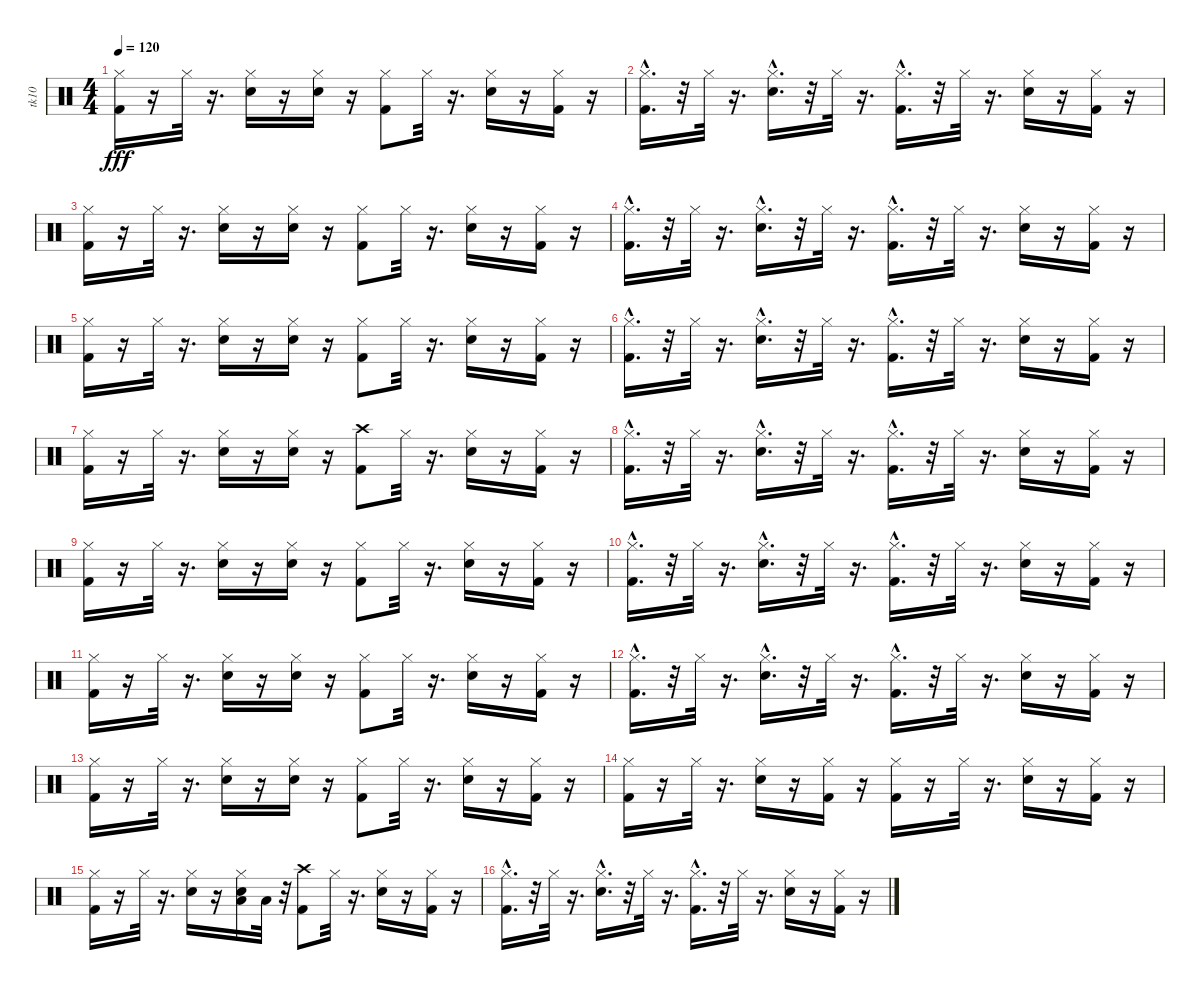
\track ("tk10" "tk10") {instrument percussion}
\staff {score}
\articulation defaults
\ts (4 4)
\tempo 120
\clef neutral
\ks c
("Hi-Hat (closed)" "Kick (hit) 2").16{dy fff} r.16 "Hi-Hat (closed)".32 r.16{d} ("Snare (hit) 2" "Hi-Hat (closed)").16 r.16 ("Hi-Hat (closed)" "Snare (hit) 2").16 r.16 ("Kick (hit) 2" "Hi-Hat (closed)").8 "Hi-Hat (closed)".32 r.16{d} ("Hi-Hat (closed)" "Snare (hit) 2").16 r.16 ("Hi-Hat (closed)" "Kick (hit) 2").16 r.16 |
("Kick (hit) 2"{hac} "Hi-Hat (closed)").16{d} r.32 "Hi-Hat (closed)".32 r.16{d} ("Snare (hit) 2"{hac} "Hi-Hat (closed)").16{d} r.32 "Hi-Hat (closed)".32 r.16{d} ("Hi-Hat (closed)" "Kick (hit) 2"{hac}).16{d} r.32 "Hi-Hat (closed)".32 r.16{d} ("Snare (hit) 2" "Hi-Hat (closed)").16 r.16 ("Kick (hit) 2" "Hi-Hat (closed)").16 r.16 |
("Kick (hit) 2" "Hi-Hat (closed)").16 r.16 "Hi-Hat (closed)".32 r.16{d} ("Hi-Hat (closed)" "Snare (hit) 2").16 r.16 ("Hi-Hat (closed)" "Snare (hit) 2").16 r.16 ("Hi-Hat (closed)" "Kick (hit) 2").8 "Hi-Hat (closed)".32 r.16{d} ("Hi-Hat (closed)" "Snare (hit) 2").16 r.16 ("Hi-Hat (closed)" "Kick (hit) 2").16 r.16 |
("Hi-Hat (closed)" "Kick (hit) 2"{hac}).16{d} r.32 "Hi-Hat (closed)".32 r.16{d} ("Hi-Hat (closed)" "Snare (hit) 2"{hac}).16{d} r.32 "Hi-Hat (closed)".32 r.16{d} ("Kick (hit) 2"{hac} "Hi-Hat (closed)").16{d} r.32 "Hi-Hat (closed)".32 r.16{d} ("Hi-Hat (closed)" "Snare (hit) 2").16 r.16 ("Kick (hit) 2" "Hi-Hat (closed)").16 r.16 |
("Hi-Hat (closed)" "Kick (hit) 2").16 r.16 "Hi-Hat (closed)".32 r.16{d} ("Hi-Hat (closed)" "Snare (hit) 2").16 r.16 ("Hi-Hat (closed)" "Snare (hit) 2").16 r.16 ("Hi-Hat (closed)" "Kick (hit) 2").8 "Hi-Hat (closed)".32 r.16{d} ("Hi-Hat (closed)" "Snare (hit) 2").16 r.16 ("Kick (hit) 2" "Hi-Hat (closed)").16 r.16 |
("Hi-Hat (closed)" "Kick (hit) 2"{hac}).16{d} r.32 "Hi-Hat (closed)".32 r.16{d} ("Snare (hit) 2"{hac} "Hi-Hat (closed)").16{d} r.32 "Hi-Hat (closed)".32 r.16{d} ("Kick (hit) 2"{hac} "Hi-Hat (closed)").16{d} r.32 "Hi-Hat (closed)".32 r.16{d} ("Snare (hit) 2" "Hi-Hat (closed)").16 r.16 ("Hi-Hat (closed)" "Kick (hit) 2").16 r.16 |
("Kick (hit) 2" "Hi-Hat (closed)").16 r.16 "Hi-Hat (closed)".32 r.16{d} ("Hi-Hat (closed)" "Snare (hit) 2").16 r.16 ("Snare (hit) 2" "Hi-Hat (closed)").16 r.16 ("Kick (hit) 2" "Crash high (hit)").8 "Hi-Hat (closed)".32 r.16{d} ("Snare (hit) 2" "Hi-Hat (closed)").16 r.16 ("Hi-Hat (closed)" "Kick (hit) 2").16 r.16 |
("Kick (hit) 2"{hac} "Hi-Hat (closed)").16{d} r.32 "Hi-Hat (closed)".32 r.16{d} ("Hi-Hat (closed)" "Snare (hit) 2"{hac}).16{d} r.32 "Hi-Hat (closed)".32 r.16{d} ("Kick (hit) 2"{hac} "Hi-Hat (closed)").16{d} r.32 "Hi-Hat (closed)".32 r.16{d} ("Hi-Hat (closed)" "Snare (hit) 2").16 r.16 ("Kick (hit) 2" "Hi-Hat (closed)").16 r.16 |
("Kick (hit) 2" "Hi-Hat (closed)").16 r.16 "Hi-Hat (closed)".32 r.16{d} ("Hi-Hat (closed)" "Snare (hit) 2").16 r.16 ("Snare (hit) 2" "Hi-Hat (closed)").16 r.16 ("Kick (hit) 2" "Hi-Hat (closed)").8 "Hi-Hat (closed)".32 r.16{d} ("Hi-Hat (closed)" "Snare (hit) 2").16 r.16 ("Hi-Hat (closed)" "Kick (hit) 2").16 r.16 |
("Kick (hit) 2"{hac} "Hi-Hat (closed)").16{d} r.32 "Hi-Hat (closed)".32 r.16{d} ("Snare (hit) 2"{hac} "Hi-Hat (closed)").16{d} r.32 "Hi-Hat (closed)".32 r.16{d} ("Kick (hit) 2"{hac} "Hi-Hat (closed)").16{d} r.32 "Hi-Hat (closed)".32 r.16{d} ("Hi-Hat (closed)" "Snare (hit) 2").16 r.16 ("Hi-Hat (closed)" "Kick (hit) 2").16 r.16 |
("Hi-Hat (closed)" "Kick (hit) 2").16 r.16 "Hi-Hat (closed)".32 r.16{d} ("Snare (hit) 2" "Hi-Hat (closed)").16 r.16 ("Hi-Hat (closed)" "Snare (hit) 2").16 r.16 ("Kick (hit) 2" "Hi-Hat (closed)").8 "Hi-Hat (closed)".32 r.16{d} ("Snare (hit) 2" "Hi-Hat (closed)").16 r.16 ("Kick (hit) 2" "Hi-Hat (closed)").16 r.16 |
("Hi-Hat (closed)" "Kick (hit) 2"{hac}).16{d} r.32 "Hi-Hat (closed)".32 r.16{d} ("Hi-Hat (closed)" "Snare (hit) 2"{hac}).16{d} r.32 "Hi-Hat (closed)".32 r.16{d} ("Hi-Hat (closed)" "Kick (hit) 2"{hac}).16{d} r.32 "Hi-Hat (closed)".32 r.16{d} ("Hi-Hat (closed)" "Snare (hit) 2").16 r.16 ("Hi-Hat (closed)" "Kick (hit) 2").16 r.16 |
("Hi-Hat (closed)" "Kick (hit) 2").16 r.16 "Hi-Hat (closed)".32 r.16{d} ("Hi-Hat (closed)" "Snare (hit) 2").16 r.16 ("Hi-Hat (closed)" "Snare (hit) 2").16 r.16 ("Hi-Hat (closed)" "Kick (hit) 2").8 "Hi-Hat (closed)".32 r.16{d} ("Hi-Hat (closed)" "Snare (hit) 2").16 r.16 ("Hi-Hat (closed)" "Kick (hit) 2").16 r.16 |
("Kick (hit) 2" "Hi-Hat (closed)").16 r.16 "Hi-Hat (closed)".32 r.16{d} ("Snare (hit) 2" "Hi-Hat (closed)").16 r.16 ("Kick (hit) 2" "Hi-Hat (closed)").16 r.16 ("Kick (hit) 2" "Hi-Hat (closed)").16 r.16 "Hi-Hat (closed)".32 r.16{d} ("Snare (hit) 2" "Hi-Hat (closed)").16 r.16 ("Hi-Hat (closed)" "Kick (hit) 2").16 r.16 |
("Kick (hit) 2" "Hi-Hat (closed)").16 r.16 "Hi-Hat (closed)".32 r.16{d} ("Hi-Hat (closed)" "Snare (hit) 2").16 r.16 ("Snare (hit) 2" "Hi-Hat (closed)" "Low Floor Tom (hit)").16 "Low Floor Tom (hit)".32 r.32 ("Crash high (hit)" "Kick (hit) 2").8 "Hi-Hat (closed)".32 r.16{d} ("Hi-Hat (closed)" "Snare (hit) 2").16 r.16 ("Hi-Hat (closed)" "Kick (hit) 2").16 r.16 |
("Hi-Hat (closed)" "Kick (hit) 2"{hac}).16{d} r.32 "Hi-Hat (closed)".32 r.16{d} ("Hi-Hat (closed)" "Snare (hit) 2"{hac}).16{d} r.32 "Hi-Hat (closed)".32 r.16{d} ("Kick (hit) 2"{hac} "Hi-Hat (closed)").16{d} r.32 "Hi-Hat (closed)".32 r.16{d} ("Hi-Hat (closed)" "Snare (hit) 2").16 r.16 ("Kick (hit) 2" "Hi-Hat (closed)").16 r.16
